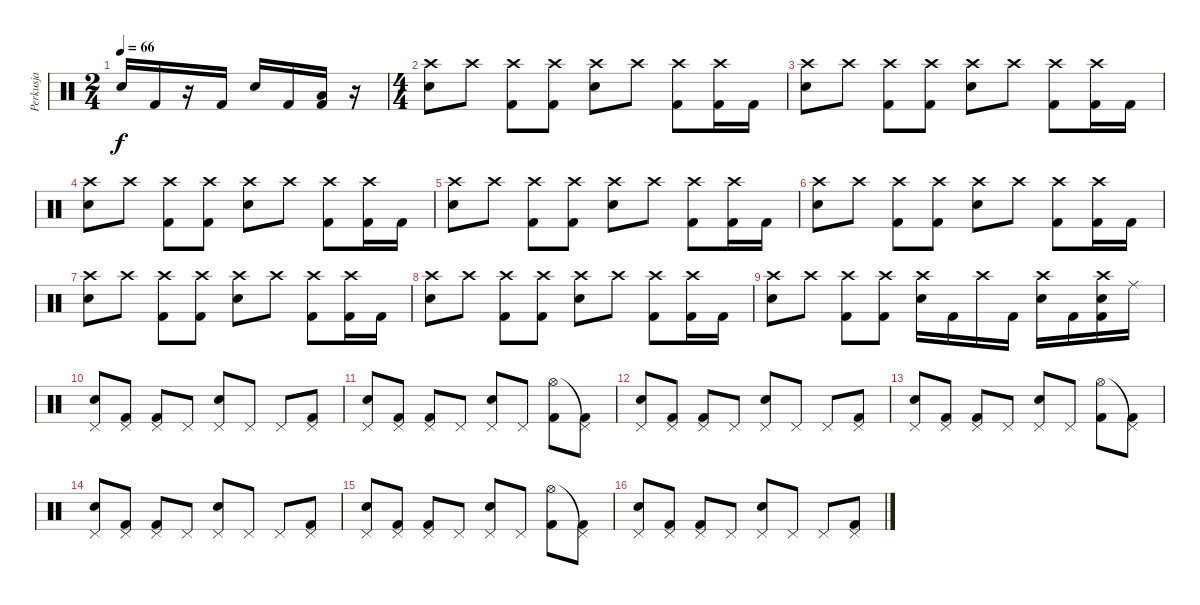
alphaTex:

\track ("Perkusja" "Perkusja") {instrument percussion}
\staff {score}
\articulation defaults
\ts (2 4)
\tempo 66
\clef neutral
\ks c "Snare (hit) 2".16{dy f} "Kick (hit) 2".16
r.16 "Kick (hit) 2".16 "Snare (hit) 2".16 "Kick (hit) 2".16 ("Kick (hit) 2" "Low Tom (hit)").16 r.16 |
\ts (4 4)
("Snare (hit) 2" "Crash high (hit)").8 "Crash high (hit)".8 ("Kick (hit) 2" "Crash high (hit)").8 ("Kick (hit) 2" "Crash high (hit)").8 ("Snare (hit) 2" "Crash high (hit)").8 "Crash high (hit)".8 ("Kick (hit) 2" "Crash high (hit)").8 ("Kick (hit) 2" "Crash high (hit)").16 "Kick (hit) 2".16 |
("Snare (hit) 2" "Crash high (hit)").8 "Crash high (hit)".8 ("Kick (hit) 2" "Crash high (hit)").8 ("Kick (hit) 2" "Crash high (hit)").8 ("Snare (hit) 2" "Crash high (hit)").8 "Crash high (hit)".8 ("Kick (hit) 2" "Crash high (hit)").8 ("Kick (hit) 2" "Crash high (hit)").16 "Kick (hit) 2".16 |
("Snare (hit) 2" "Crash high (hit)").8 "Crash high (hit)".8 ("Kick (hit) 2" "Crash high (hit)").8 ("Kick (hit) 2" "Crash high (hit)").8 ("Snare (hit) 2" "Crash high (hit)").8 "Crash high (hit)".8 ("Kick (hit) 2" "Crash high (hit)").8 ("Kick (hit) 2" "Crash high (hit)").16 "Kick (hit) 2".16 |
("Snare (hit) 2" "Crash high (hit)").8 "Crash high (hit)".8 ("Kick (hit) 2" "Crash high (hit)").8 ("Kick (hit) 2" "Crash high (hit)").8 ("Snare (hit) 2" "Crash high (hit)").8 "Crash high (hit)".8 ("Kick (hit) 2" "Crash high (hit)").8 ("Kick (hit) 2" "Crash high (hit)").16 "Kick (hit) 2".16 |
("Snare (hit) 2" "Crash high (hit)").8 "Crash high (hit)".8 ("Kick (hit) 2" "Crash high (hit)").8 ("Kick (hit) 2" "Crash high (hit)").8 ("Snare (hit) 2" "Crash high (hit)").8 "Crash high (hit)".8 ("Kick (hit) 2" "Crash high (hit)").8 ("Kick (hit) 2" "Crash high (hit)").16 "Kick (hit) 2".16 |
("Snare (hit) 2" "Crash high (hit)").8 "Crash high (hit)".8 ("Kick (hit) 2" "Crash high (hit)").8 ("Kick (hit) 2" "Crash high (hit)").8 ("Snare (hit) 2" "Crash high (hit)").8 "Crash high (hit)".8 ("Kick (hit) 2" "Crash high (hit)").8 ("Kick (hit) 2" "Crash high (hit)").16 "Kick (hit) 2".16 |
("Snare (hit) 2" "Crash high (hit)").8 "Crash high (hit)".8 ("Kick (hit) 2" "Crash high (hit)").8 ("Kick (hit) 2" "Crash high (hit)").8 ("Snare (hit) 2" "Crash high (hit)").8 "Crash high (hit)".8 ("Kick (hit) 2" "Crash high (hit)").8 ("Kick (hit) 2" "Crash high (hit)").16 "Kick (hit) 2".16 |
("Snare (hit) 2" "Crash high (hit)").8 "Crash high (hit)".8 ("Kick (hit) 2" "Crash high (hit)").8 ("Kick (hit) 2" "Crash high (hit)").8 ("Snare (hit) 2" "Crash high (hit)").16 "Kick (hit) 2".16 "Crash high (hit)".16 "Kick (hit) 2".16 ("Snare (hit) 2" "Crash high (hit)").16 "Kick (hit) 2".16 ("Kick (hit) 2" "Snare (hit) 2" "Crash high (hit)").16 "Ride (middle)".16 |
("Snare (hit) 2" "Pedal Hi-Hat (hit)").8 ("Kick (hit) 2" "Pedal Hi-Hat (hit)").8 ("Kick (hit) 2" "Pedal Hi-Hat (hit)").8 "Pedal Hi-Hat (hit)".8 ("Snare (hit) 2" "Pedal Hi-Hat (hit)").8 "Pedal Hi-Hat (hit)".8 "Pedal Hi-Hat (hit)".8 ("Kick (hit) 2" "Pedal Hi-Hat (hit)").8 |
("Snare (hit) 2" "Pedal Hi-Hat (hit)").8 ("Kick (hit) 2" "Pedal Hi-Hat (hit)").8 ("Kick (hit) 2" "Pedal Hi-Hat (hit)").8 "Pedal Hi-Hat (hit)".8 ("Snare (hit) 2" "Pedal Hi-Hat (hit)").8 "Pedal Hi-Hat (hit)".8 ("Kick (hit) 2" "Hi-Hat (open)").8 ("Kick (hit) 2" "Pedal Hi-Hat (hit)"{t}).8 |
("Snare (hit) 2" "Pedal Hi-Hat (hit)").8 ("Kick (hit) 2" "Pedal Hi-Hat (hit)").8 ("Kick (hit) 2" "Pedal Hi-Hat (hit)").8 "Pedal Hi-Hat (hit)".8 ("Snare (hit) 2" "Pedal Hi-Hat (hit)").8 "Pedal Hi-Hat (hit)".8 "Pedal Hi-Hat (hit)".8 ("Kick (hit) 2" "Pedal Hi-Hat (hit)").8 |
("Snare (hit) 2" "Pedal Hi-Hat (hit)").8 ("Kick (hit) 2" "Pedal Hi-Hat (hit)").8 ("Kick (hit) 2" "Pedal Hi-Hat (hit)").8 "Pedal Hi-Hat (hit)".8 ("Snare (hit) 2" "Pedal Hi-Hat (hit)").8 "Pedal Hi-Hat (hit)".8 ("Kick (hit) 2" "Hi-Hat (open)").8 ("Kick (hit) 2" "Pedal Hi-Hat (hit)"{t}).8 |
("Snare (hit) 2" "Pedal Hi-Hat (hit)").8 ("Kick (hit) 2" "Pedal Hi-Hat (hit)").8 ("Kick (hit) 2" "Pedal Hi-Hat (hit)").8 "Pedal Hi-Hat (hit)".8 ("Snare (hit) 2" "Pedal Hi-Hat (hit)").8 "Pedal Hi-Hat (hit)".8 "Pedal Hi-Hat (hit)".8 ("Kick (hit) 2" "Pedal Hi-Hat (hit)").8 |
("Snare (hit) 2" "Pedal Hi-Hat (hit)").8 ("Kick (hit) 2" "Pedal Hi-Hat (hit)").8 ("Kick (hit) 2" "Pedal Hi-Hat (hit)").8 "Pedal Hi-Hat (hit)".8 ("Snare (hit) 2" "Pedal Hi-Hat (hit)").8 "Pedal Hi-Hat (hit)".8 ("Kick (hit) 2" "Hi-Hat (open)").8 ("Kick (hit) 2" "Pedal Hi-Hat (hit)"{t}).8 |
("Snare (hit) 2" "Pedal Hi-Hat (hit)").8 ("Kick (hit) 2" "Pedal Hi-Hat (hit)").8 ("Kick (hit) 2" "Pedal Hi-Hat (hit)").8 "Pedal Hi-Hat (hit)".8 ("Snare (hit) 2" "Pedal Hi-Hat (hit)").8 "Pedal Hi-Hat (hit)".8 "Pedal Hi-Hat (hit)".8 ("Kick (hit) 2" "Pedal Hi-Hat (hit)").8
